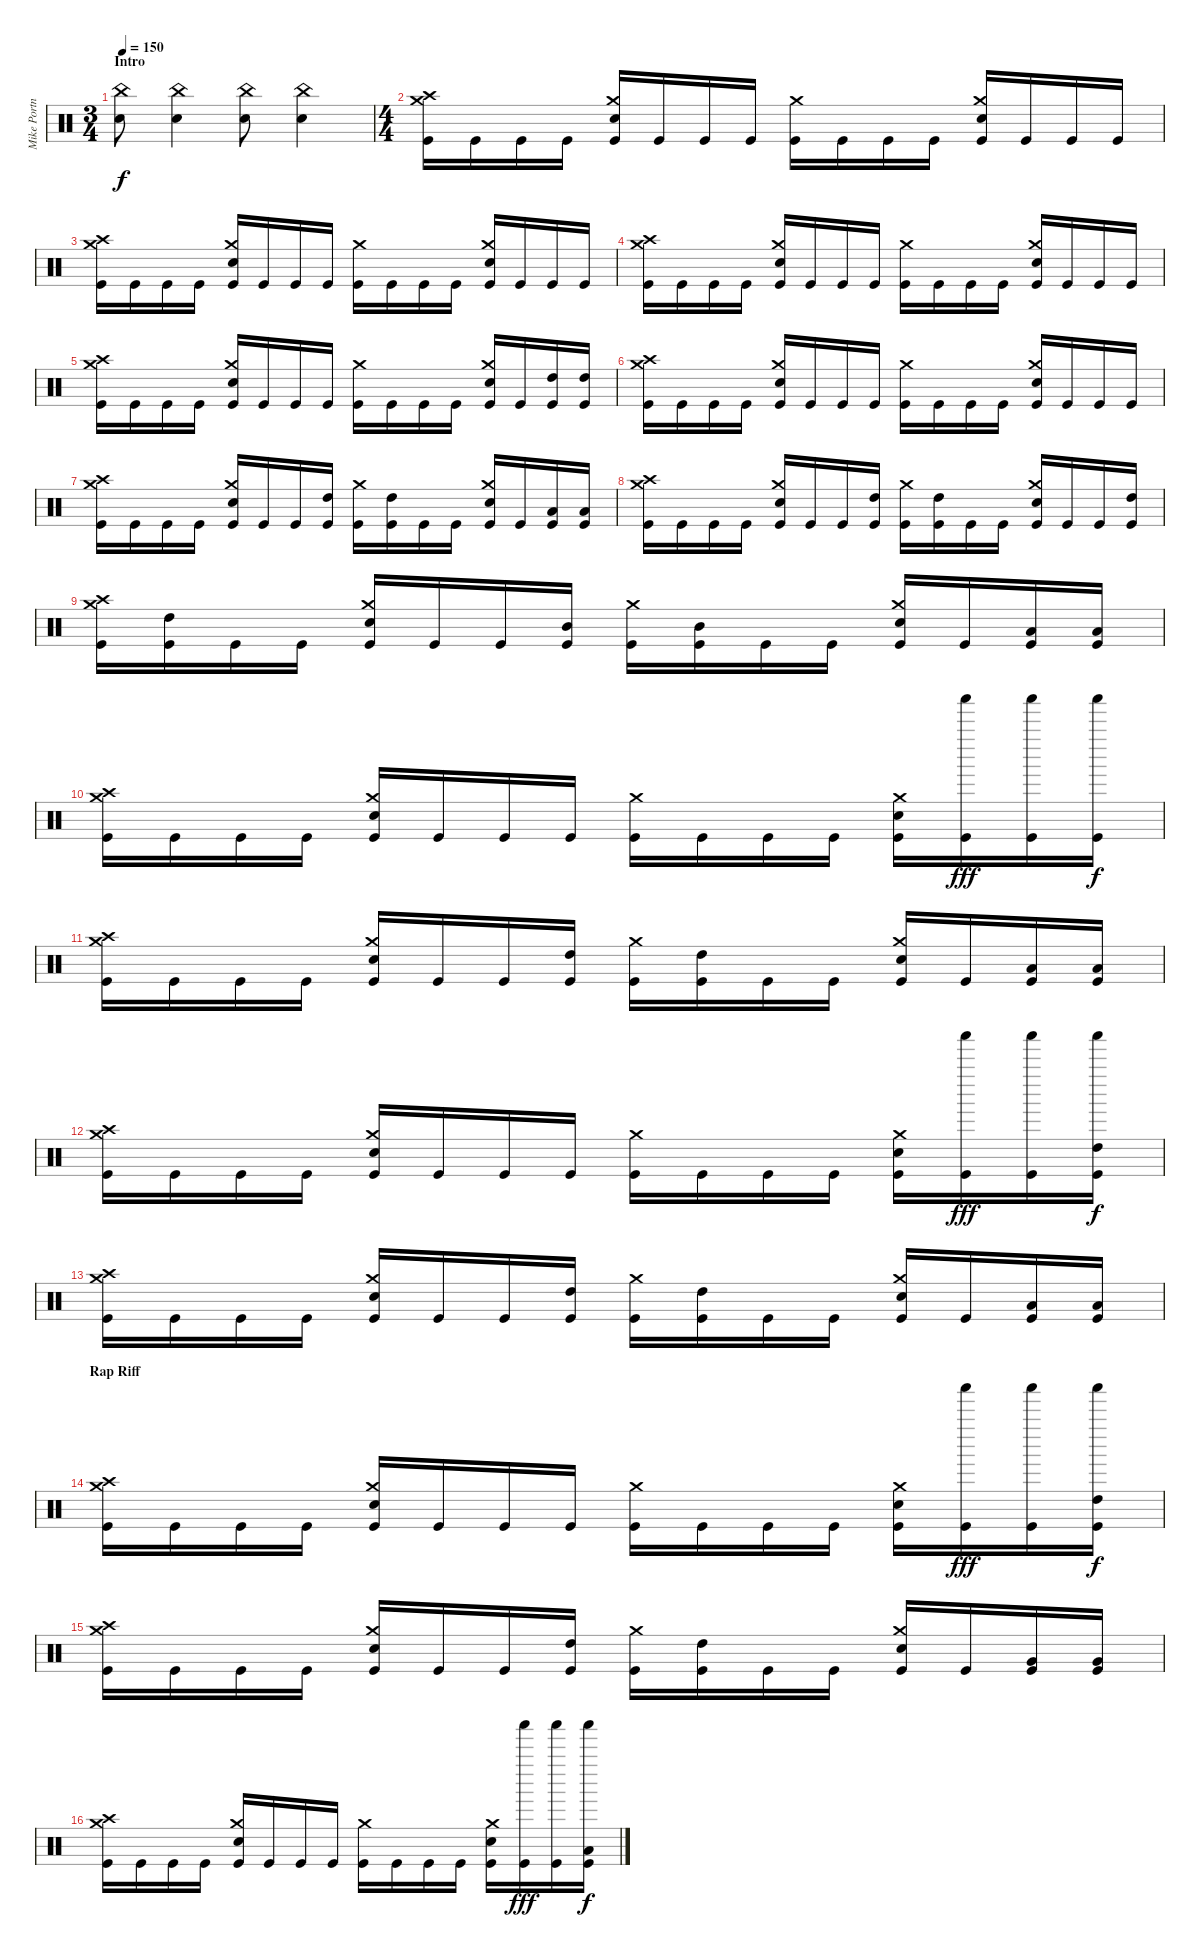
\track ("Mike Portnoy" "Mike Portn") {instrument percussion}
\staff {score}
\articulation defaults
\ts (3 4)
\section ("" "Intro")
\tempo 150
\clef neutral
\ks c
("China (hit)" "Electric Snare (hit)").8{dy f} ("China (hit)" "Electric Snare (hit)").4 ("China (hit)" "Electric Snare (hit)").8 ("China (hit)" "Electric Snare (hit)").4 |
\ts (4 4)
("Crash high (hit)" "Crash medium (hit)" "Kick (hit)").16 "Kick (hit)".16 "Kick (hit)".16 "Kick (hit)".16 ("Crash medium (hit)" "Electric Snare (hit)" "Kick (hit)").16 "Kick (hit)".16 "Kick (hit)".16 "Kick (hit)".16 ("Crash medium (hit)" "Kick (hit)").16 "Kick (hit)".16 "Kick (hit)".16 "Kick (hit)".16 ("Crash medium (hit)" "Electric Snare (hit)" "Kick (hit)").16 "Kick (hit)".16 "Kick (hit)".16 "Kick (hit)".16 |
("Crash high (hit)" "Crash medium (hit)" "Kick (hit)").16 "Kick (hit)".16 "Kick (hit)".16 "Kick (hit)".16 ("Crash medium (hit)" "Electric Snare (hit)" "Kick (hit)").16 "Kick (hit)".16 "Kick (hit)".16 "Kick (hit)".16 ("Crash medium (hit)" "Kick (hit)").16 "Kick (hit)".16 "Kick (hit)".16 "Kick (hit)".16 ("Crash medium (hit)" "Electric Snare (hit)" "Kick (hit)").16 "Kick (hit)".16 "Kick (hit)".16 "Kick (hit)".16 |
("Crash high (hit)" "Crash medium (hit)" "Kick (hit)").16 "Kick (hit)".16 "Kick (hit)".16 "Kick (hit)".16 ("Crash medium (hit)" "Electric Snare (hit)" "Kick (hit)").16 "Kick (hit)".16 "Kick (hit)".16 "Kick (hit)".16 ("Crash medium (hit)" "Kick (hit)").16 "Kick (hit)".16 "Kick (hit)".16 "Kick (hit)".16 ("Crash medium (hit)" "Electric Snare (hit)" "Kick (hit)").16 "Kick (hit)".16 "Kick (hit)".16 "Kick (hit)".16 |
("Crash high (hit)" "Crash medium (hit)" "Kick (hit)").16 "Kick (hit)".16 "Kick (hit)".16 "Kick (hit)".16 ("Crash medium (hit)" "Electric Snare (hit)" "Kick (hit)").16 "Kick (hit)".16 "Kick (hit)".16 "Kick (hit)".16 ("Crash medium (hit)" "Kick (hit)").16 "Kick (hit)".16 "Kick (hit)".16 "Kick (hit)".16 ("Crash medium (hit)" "Electric Snare (hit)" "Kick (hit)").16 "Kick (hit)".16 ("High Tom (hit)" "Kick (hit)").16 ("High Tom (hit)" "Kick (hit)").16 |
("Crash high (hit)" "Crash medium (hit)" "Kick (hit)").16 "Kick (hit)".16 "Kick (hit)".16 "Kick (hit)".16 ("Crash medium (hit)" "Electric Snare (hit)" "Kick (hit)").16 "Kick (hit)".16 "Kick (hit)".16 "Kick (hit)".16 ("Crash medium (hit)" "Kick (hit)").16 "Kick (hit)".16 "Kick (hit)".16 "Kick (hit)".16 ("Crash medium (hit)" "Electric Snare (hit)" "Kick (hit)").16 "Kick (hit)".16 "Kick (hit)".16 "Kick (hit)".16 |
("Crash high (hit)" "Crash medium (hit)" "Kick (hit)").16 "Kick (hit)".16 "Kick (hit)".16 "Kick (hit)".16 ("Crash medium (hit)" "Electric Snare (hit)" "Kick (hit)").16 "Kick (hit)".16 "Kick (hit)".16 ("High Tom (hit)" "Kick (hit)").16 ("Crash medium (hit)" "Kick (hit)").16 ("High Tom (hit)" "Kick (hit)").16 "Kick (hit)".16 "Kick (hit)".16 ("Crash medium (hit)" "Electric Snare (hit)" "Kick (hit)").16 "Kick (hit)".16 ("Low Tom (hit)" "Kick (hit)").16 ("Low Tom (hit)" "Kick (hit)").16 |
("Crash high (hit)" "Crash medium (hit)" "Kick (hit)").16 "Kick (hit)".16 "Kick (hit)".16 "Kick (hit)".16 ("Crash medium (hit)" "Electric Snare (hit)" "Kick (hit)").16 "Kick (hit)".16 "Kick (hit)".16 ("High Tom (hit)" "Kick (hit)").16 ("Crash medium (hit)" "Kick (hit)").16 ("High Tom (hit)" "Kick (hit)").16 "Kick (hit)".16 "Kick (hit)".16 ("Crash medium (hit)" "Electric Snare (hit)" "Kick (hit)").16 "Kick (hit)".16 "Kick (hit)".16 ("High Tom (hit)" "Kick (hit)").16 |
("Crash high (hit)" "Crash medium (hit)" "Kick (hit)").16 ("High Tom (hit)" "Kick (hit)").16 "Kick (hit)".16 "Kick (hit)".16 ("Crash medium (hit)" "Electric Snare (hit)" "Kick (hit)").16 "Kick (hit)".16 "Kick (hit)".16 ("Mid Tom (hit)" "Kick (hit)").16 ("Crash medium (hit)" "Kick (hit)").16 ("Mid Tom (hit)" "Kick (hit)").16 "Kick (hit)".16 "Kick (hit)".16 ("Crash medium (hit)" "Electric Snare (hit)" "Kick (hit)").16 "Kick (hit)".16 ("Low Tom (hit)" "Kick (hit)").16 ("Low Tom (hit)" "Kick (hit)").16 |
("Crash high (hit)" "Crash medium (hit)" "Kick (hit)").16 "Kick (hit)".16 "Kick (hit)".16 "Kick (hit)".16 ("Crash medium (hit)" "Electric Snare (hit)" "Kick (hit)").16 "Kick (hit)".16 "Kick (hit)".16 "Kick (hit)".16 ("Crash medium (hit)" "Kick (hit)").16 "Kick (hit)".16 "Kick (hit)".16 "Kick (hit)".16 ("Crash medium (hit)" "Electric Snare (hit)" "Kick (hit)").16 ("Shaker (hit)" "Kick (hit)").16{dy fff} ("Shaker (hit)" "Kick (hit)").16 ("Shaker (hit)" "Kick (hit)").16{dy f} |
("Crash high (hit)" "Crash medium (hit)" "Kick (hit)").16 "Kick (hit)".16 "Kick (hit)".16 "Kick (hit)".16 ("Crash medium (hit)" "Electric Snare (hit)" "Kick (hit)").16 "Kick (hit)".16 "Kick (hit)".16 ("High Tom (hit)" "Kick (hit)").16 ("Crash medium (hit)" "Kick (hit)").16 ("High Tom (hit)" "Kick (hit)").16 "Kick (hit)".16 "Kick (hit)".16 ("Crash medium (hit)" "Electric Snare (hit)" "Kick (hit)").16 "Kick (hit)".16 ("Low Tom (hit)" "Kick (hit)").16 ("Low Tom (hit)" "Kick (hit)").16 |
("Crash high (hit)" "Crash medium (hit)" "Kick (hit)").16 "Kick (hit)".16 "Kick (hit)".16 "Kick (hit)".16 ("Crash medium (hit)" "Electric Snare (hit)" "Kick (hit)").16 "Kick (hit)".16 "Kick (hit)".16 "Kick (hit)".16 ("Crash medium (hit)" "Kick (hit)").16 "Kick (hit)".16 "Kick (hit)".16 "Kick (hit)".16 ("Crash medium (hit)" "Electric Snare (hit)" "Kick (hit)").16 ("Shaker (hit)" "Kick (hit)").16{dy fff} ("Shaker (hit)" "Kick (hit)").16 ("Shaker (hit)" "High Tom (hit)" "Kick (hit)").16{dy f} |
("Crash high (hit)" "Crash medium (hit)" "Kick (hit)").16 "Kick (hit)".16 "Kick (hit)".16 "Kick (hit)".16 ("Crash medium (hit)" "Electric Snare (hit)" "Kick (hit)").16 "Kick (hit)".16 "Kick (hit)".16 ("High Tom (hit)" "Kick (hit)").16 ("Crash medium (hit)" "Kick (hit)").16 ("High Tom (hit)" "Kick (hit)").16 "Kick (hit)".16 "Kick (hit)".16 ("Crash medium (hit)" "Electric Snare (hit)" "Kick (hit)").16 "Kick (hit)".16 ("Low Tom (hit)" "Kick (hit)").16 ("Low Tom (hit)" "Kick (hit)").16 |
\section ("" "Rap Riff")
("Crash high (hit)" "Crash medium (hit)" "Kick (hit)").16 "Kick (hit)".16 "Kick (hit)".16 "Kick (hit)".16 ("Crash medium (hit)" "Electric Snare (hit)" "Kick (hit)").16 "Kick (hit)".16 "Kick (hit)".16 "Kick (hit)".16 ("Crash medium (hit)" "Kick (hit)").16 "Kick (hit)".16 "Kick (hit)".16 "Kick (hit)".16 ("Crash medium (hit)" "Electric Snare (hit)" "Kick (hit)").16 ("Shaker (hit)" "Kick (hit)").16{dy fff} ("Shaker (hit)" "Kick (hit)").16 ("Shaker (hit)" "High Tom (hit)" "Kick (hit)").16{dy f} |
("Crash high (hit)" "Crash medium (hit)" "Kick (hit)").16 "Kick (hit)".16 "Kick (hit)".16 "Kick (hit)".16 ("Crash medium (hit)" "Electric Snare (hit)" "Kick (hit)").16 "Kick (hit)".16 "Kick (hit)".16 ("High Tom (hit)" "Kick (hit)").16 ("Crash medium (hit)" "Kick (hit)").16 ("High Tom (hit)" "Kick (hit)").16 "Kick (hit)".16 "Kick (hit)".16 ("Crash medium (hit)" "Electric Snare (hit)" "Kick (hit)").16 "Kick (hit)".16 ("Very Low Tom (hit)" "Kick (hit)").16 ("Very Low Tom (hit)" "Kick (hit)").16 |
("Crash high (hit)" "Crash medium (hit)" "Kick (hit)").16 "Kick (hit)".16 "Kick (hit)".16 "Kick (hit)".16 ("Crash medium (hit)" "Electric Snare (hit)" "Kick (hit)").16 "Kick (hit)".16 "Kick (hit)".16 "Kick (hit)".16 ("Crash medium (hit)" "Kick (hit)").16 "Kick (hit)".16 "Kick (hit)".16 "Kick (hit)".16 ("Crash medium (hit)" "Electric Snare (hit)" "Kick (hit)").16 ("Shaker (hit)" "Kick (hit)").16{dy fff} ("Shaker (hit)" "Kick (hit)").16 ("Shaker (hit)" "Low Tom (hit)" "Kick (hit)").16{dy f}
